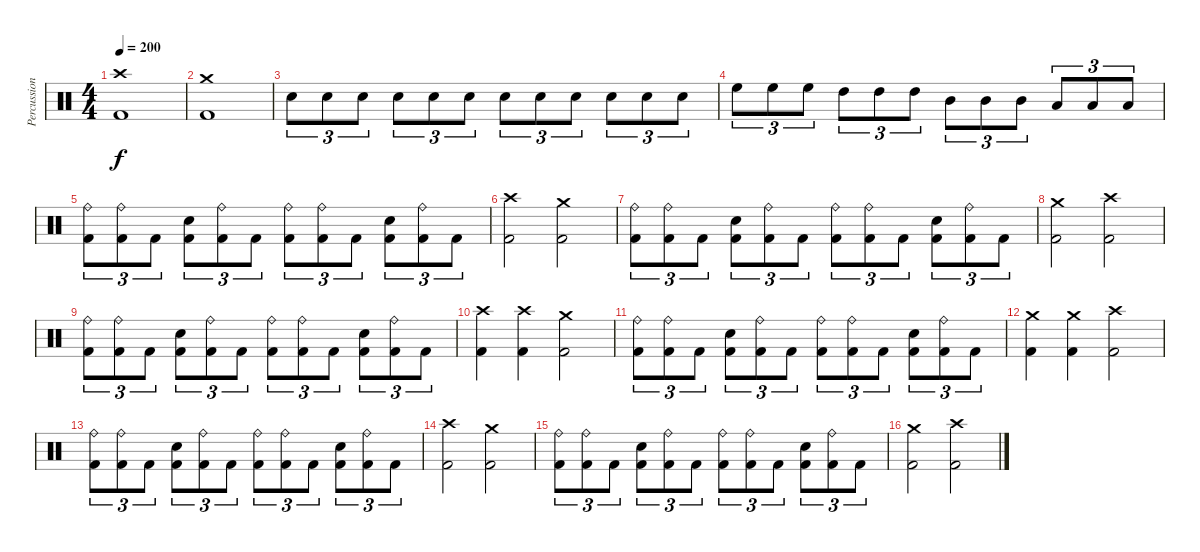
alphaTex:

\track ("Percussion" "Percussion") {instrument percussion}
\staff {score}
\articulation defaults
\ts (4 4)
\tempo 200
\clef neutral
\ks c
("Crash high (hit)" "Kick (hit) 2").1{dy f} |
("Crash medium (hit)" "Kick (hit) 2").1 |
"Electric Snare (hit)".8{tu (3 2)} "Electric Snare (hit)".8{tu (3 2)} "Electric Snare (hit)".8{tu (3 2)} "Electric Snare (hit)".8{tu (3 2)} "Electric Snare (hit)".8{tu (3 2)} "Electric Snare (hit)".8{tu (3 2)} "Electric Snare (hit)".8{tu (3 2)} "Electric Snare (hit)".8{tu (3 2)} "Electric Snare (hit)".8{tu (3 2)} "Electric Snare (hit)".8{tu (3 2)} "Electric Snare (hit)".8{tu (3 2)} "Electric Snare (hit)".8{tu (3 2)} |
"High Floor Tom (hit)".8{tu (3 2)} "High Floor Tom (hit)".8{tu (3 2)} "High Floor Tom (hit)".8{tu (3 2)} "High Tom (hit)".8{tu (3 2)} "High Tom (hit)".8{tu (3 2)} "High Tom (hit)".8{tu (3 2)} "Mid Tom (hit)".8{tu (3 2)} "Mid Tom (hit)".8{tu (3 2)} "Mid Tom (hit)".8{tu (3 2)} "Low Tom (hit)".8{tu (3 2)} "Low Tom (hit)".8{tu (3 2)} "Low Tom (hit)".8{tu (3 2)} |
("Ride (bell)" "Kick (hit) 2").8{tu (3 2)} ("Ride (bell)" "Kick (hit) 2").8{tu (3 2)} "Kick (hit) 2".8{tu (3 2)} ("Electric Snare (hit)" "Kick (hit) 2").8{tu (3 2)} ("Ride (bell)" "Kick (hit) 2").8{tu (3 2)} "Kick (hit) 2".8{tu (3 2)} ("Ride (bell)" "Kick (hit) 2").8{tu (3 2)} ("Ride (bell)" "Kick (hit) 2").8{tu (3 2)} "Kick (hit) 2".8{tu (3 2)} ("Electric Snare (hit)" "Kick (hit) 2").8{tu (3 2)} ("Ride (bell)" "Kick (hit) 2").8{tu (3 2)} "Kick (hit) 2".8{tu (3 2)} |
("Crash high (hit)" "Kick (hit) 2").2 ("Crash medium (hit)" "Kick (hit) 2").2 |
("Ride (bell)" "Kick (hit) 2").8{tu (3 2)} ("Ride (bell)" "Kick (hit) 2").8{tu (3 2)} "Kick (hit) 2".8{tu (3 2)} ("Electric Snare (hit)" "Kick (hit) 2").8{tu (3 2)} ("Ride (bell)" "Kick (hit) 2").8{tu (3 2)} "Kick (hit) 2".8{tu (3 2)} ("Ride (bell)" "Kick (hit) 2").8{tu (3 2)} ("Ride (bell)" "Kick (hit) 2").8{tu (3 2)} "Kick (hit) 2".8{tu (3 2)} ("Electric Snare (hit)" "Kick (hit) 2").8{tu (3 2)} ("Ride (bell)" "Kick (hit) 2").8{tu (3 2)} "Kick (hit) 2".8{tu (3 2)} |
("Crash medium (hit)" "Kick (hit) 2").2 ("Crash high (hit)" "Kick (hit) 2").2 |
("Ride (bell)" "Kick (hit) 2").8{tu (3 2)} ("Ride (bell)" "Kick (hit) 2").8{tu (3 2)} "Kick (hit) 2".8{tu (3 2)} ("Electric Snare (hit)" "Kick (hit) 2").8{tu (3 2)} ("Ride (bell)" "Kick (hit) 2").8{tu (3 2)} "Kick (hit) 2".8{tu (3 2)} ("Ride (bell)" "Kick (hit) 2").8{tu (3 2)} ("Ride (bell)" "Kick (hit) 2").8{tu (3 2)} "Kick (hit) 2".8{tu (3 2)} ("Electric Snare (hit)" "Kick (hit) 2").8{tu (3 2)} ("Ride (bell)" "Kick (hit) 2").8{tu (3 2)} "Kick (hit) 2".8{tu (3 2)} |
("Crash high (hit)" "Kick (hit) 2").4 ("Crash high (hit)" "Kick (hit) 2").4 ("Crash medium (hit)" "Kick (hit) 2").2 |
("Ride (bell)" "Kick (hit) 2").8{tu (3 2)} ("Ride (bell)" "Kick (hit) 2").8{tu (3 2)} "Kick (hit) 2".8{tu (3 2)} ("Electric Snare (hit)" "Kick (hit) 2").8{tu (3 2)} ("Ride (bell)" "Kick (hit) 2").8{tu (3 2)} "Kick (hit) 2".8{tu (3 2)} ("Ride (bell)" "Kick (hit) 2").8{tu (3 2)} ("Ride (bell)" "Kick (hit) 2").8{tu (3 2)} "Kick (hit) 2".8{tu (3 2)} ("Electric Snare (hit)" "Kick (hit) 2").8{tu (3 2)} ("Ride (bell)" "Kick (hit) 2").8{tu (3 2)} "Kick (hit) 2".8{tu (3 2)} |
("Crash medium (hit)" "Kick (hit) 2").4 ("Crash medium (hit)" "Kick (hit) 2").4 ("Crash high (hit)" "Kick (hit) 2").2 |
("Ride (bell)" "Kick (hit) 2").8{tu (3 2)} ("Ride (bell)" "Kick (hit) 2").8{tu (3 2)} "Kick (hit) 2".8{tu (3 2)} ("Electric Snare (hit)" "Kick (hit) 2").8{tu (3 2)} ("Ride (bell)" "Kick (hit) 2").8{tu (3 2)} "Kick (hit) 2".8{tu (3 2)} ("Ride (bell)" "Kick (hit) 2").8{tu (3 2)} ("Ride (bell)" "Kick (hit) 2").8{tu (3 2)} "Kick (hit) 2".8{tu (3 2)} ("Electric Snare (hit)" "Kick (hit) 2").8{tu (3 2)} ("Ride (bell)" "Kick (hit) 2").8{tu (3 2)} "Kick (hit) 2".8{tu (3 2)} |
("Crash high (hit)" "Kick (hit) 2").2 ("Crash medium (hit)" "Kick (hit) 2").2 |
("Ride (bell)" "Kick (hit) 2").8{tu (3 2)} ("Ride (bell)" "Kick (hit) 2").8{tu (3 2)} "Kick (hit) 2".8{tu (3 2)} ("Electric Snare (hit)" "Kick (hit) 2").8{tu (3 2)} ("Ride (bell)" "Kick (hit) 2").8{tu (3 2)} "Kick (hit) 2".8{tu (3 2)} ("Ride (bell)" "Kick (hit) 2").8{tu (3 2)} ("Ride (bell)" "Kick (hit) 2").8{tu (3 2)} "Kick (hit) 2".8{tu (3 2)} ("Electric Snare (hit)" "Kick (hit) 2").8{tu (3 2)} ("Ride (bell)" "Kick (hit) 2").8{tu (3 2)} "Kick (hit) 2".8{tu (3 2)} |
("Crash medium (hit)" "Kick (hit) 2").2 ("Crash high (hit)" "Kick (hit) 2").2
